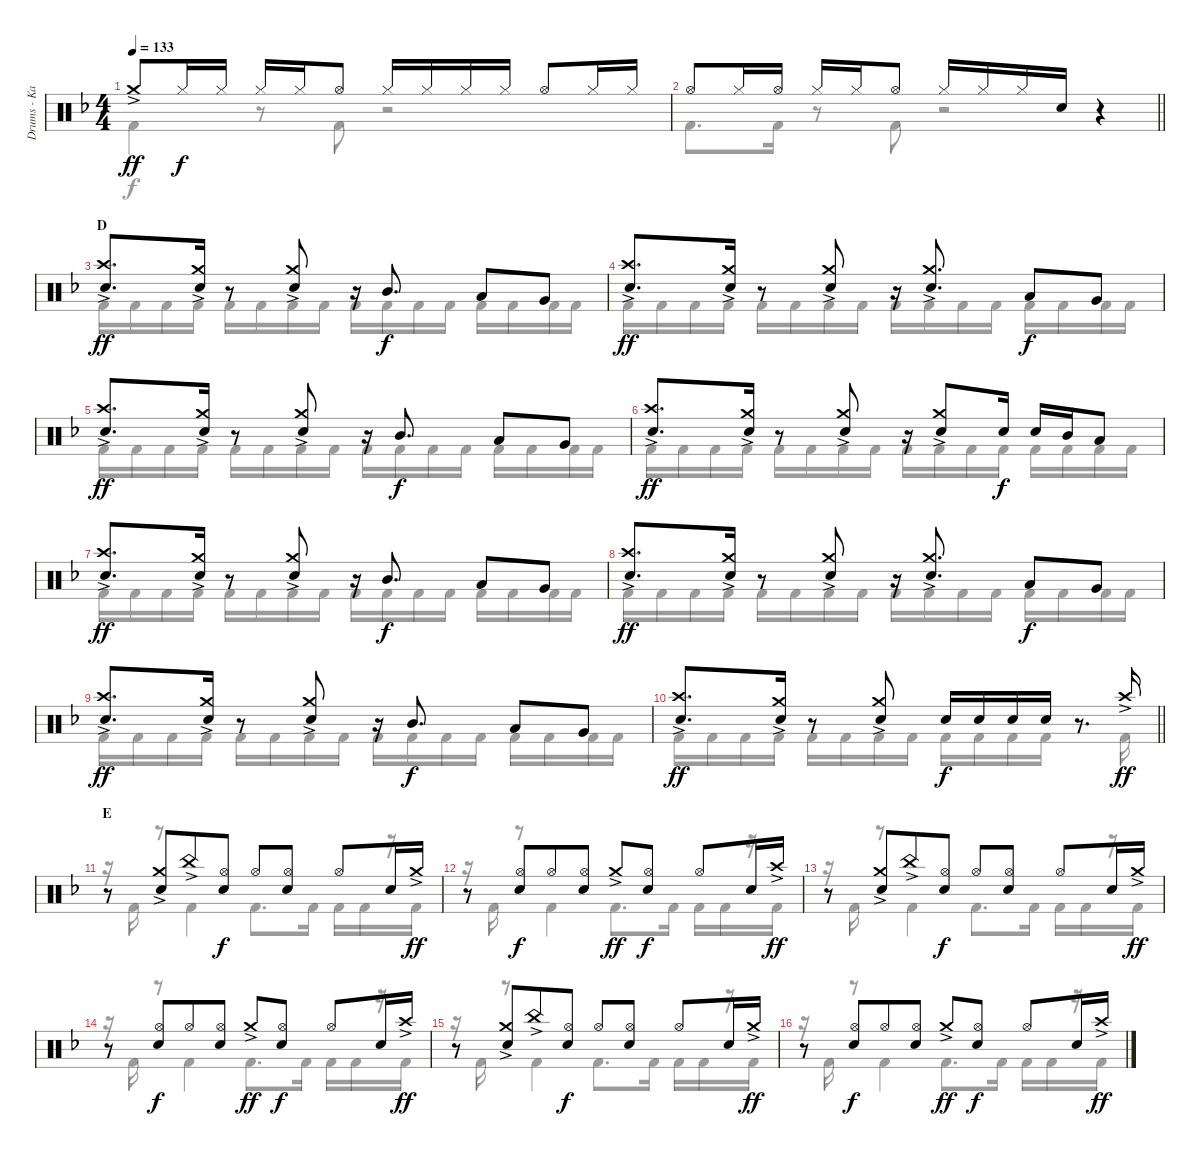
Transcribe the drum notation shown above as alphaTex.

\track ("Drums - Kai" "Drums - Ka") {instrument percussion}
\staff {score}
\articulation defaults
\voice
\ts (4 4)
\tempo 133
\clef neutral
\ks f "Crash medium (hit)"{ac}.8{dy ff} "Hi-Hat (closed)".16{dy f} "Hi-Hat (closed)".16 "Hi-Hat (closed)".16 "Hi-Hat (closed)".16 "Hi-Hat (open)".8 "Hi-Hat (closed)".16 "Hi-Hat (closed)".16 "Hi-Hat (closed)".16 "Hi-Hat (closed)".16 "Hi-Hat (open)".8 "Hi-Hat (closed)".16 "Hi-Hat (closed)".16
|
\barLineRight lightlight "Hi-Hat (open)".8 "Hi-Hat (closed)".16 "Hi-Hat (open)".16 "Hi-Hat (closed)".16 "Hi-Hat (closed)".16 "Hi-Hat (open)".8 "Hi-Hat (closed)".16 "Hi-Hat (closed)".16 "Hi-Hat (closed)".16 "Snare (hit) 2".16
r.4 |
\section ("" "D")
("Crash high (hit)"{ac} "Snare (hit) 2").8{d dy ff} ("Crash medium (hit)"{ac} "Snare (hit) 2").16 r.8 ("Crash medium (hit)"{ac} "Snare (hit) 2").8 r.16 "Mid Tom (hit)".8{d dy f} "Low Tom (hit)".8 "Very Low Tom (hit)".8 |
("Crash high (hit)"{ac} "Snare (hit) 2").8{d dy ff} ("Crash medium (hit)"{ac} "Snare (hit) 2").16 r.8 ("Crash medium (hit)"{ac} "Snare (hit) 2").8 r.16 ("Crash medium (hit)"{ac} "Snare (hit) 2").8{d} "Low Tom (hit)".8{dy f} "Very Low Tom (hit)".8 |
("Crash high (hit)"{ac} "Snare (hit) 2").8{d dy ff} ("Crash medium (hit)"{ac} "Snare (hit) 2").16 r.8 ("Crash medium (hit)"{ac} "Snare (hit) 2").8 r.16 "Mid Tom (hit)".8{d dy f} "Low Tom (hit)".8 "Very Low Tom (hit)".8 |
("Crash high (hit)"{ac} "Snare (hit) 2").8{d dy ff} ("Crash medium (hit)"{ac} "Snare (hit) 2").16 r.8 ("Crash medium (hit)"{ac} "Snare (hit) 2").8 r.16 ("Crash medium (hit)"{ac} "Snare (hit) 2").8 "Snare (hit) 2".16{dy f} "Snare (hit) 2".16 "Mid Tom (hit)".16 "Low Tom (hit)".8 |
("Crash high (hit)"{ac} "Snare (hit) 2").8{d dy ff} ("Crash medium (hit)"{ac} "Snare (hit) 2").16 r.8 ("Crash medium (hit)"{ac} "Snare (hit) 2").8 r.16 "Mid Tom (hit)".8{d dy f} "Low Tom (hit)".8 "Very Low Tom (hit)".8 |
("Crash high (hit)"{ac} "Snare (hit) 2").8{d dy ff} ("Crash medium (hit)"{ac} "Snare (hit) 2").16 r.8 ("Crash medium (hit)"{ac} "Snare (hit) 2").8 r.16 ("Crash medium (hit)"{ac} "Snare (hit) 2").8{d} "Low Tom (hit)".8{dy f} "Very Low Tom (hit)".8 |
("Crash high (hit)"{ac} "Snare (hit) 2").8{d dy ff} ("Crash medium (hit)"{ac} "Snare (hit) 2").16 r.8 ("Crash medium (hit)"{ac} "Snare (hit) 2").8 r.16 "Mid Tom (hit)".8{d dy f} "Low Tom (hit)".8 "Very Low Tom (hit)".8 |
\barLineRight lightlight
("Crash high (hit)"{ac} "Snare (hit) 2").8{d dy ff} ("Crash medium (hit)"{ac} "Snare (hit) 2").16 r.8 ("Crash medium (hit)"{ac} "Snare (hit) 2").8 "Snare (hit) 2".16{dy f} "Snare (hit) 2".16 "Snare (hit) 2".16 "Snare (hit) 2".16 r.8{d} "Crash high (hit)"{ac}.16{dy ff} |
\section ("" "E")
r.8 ("Crash medium (hit)"{ac} "Snare (hit) 2").8{beam merge} "China (hit)"{ac}.8 ("Hi-Hat (open)" "Snare (hit) 2").8{dy f} "Hi-Hat (open)".8 ("Hi-Hat (open)" "Snare (hit) 2").8 "Hi-Hat (open)".8 "Snare (hit) 2".16 "Crash medium (hit)"{ac}.16{dy ff} |
r.8 ("Hi-Hat (open)" "Snare (hit) 2").8{dy f beam merge} "Hi-Hat (open)".8 ("Hi-Hat (open)" "Snare (hit) 2").8 "Crash medium (hit)"{ac}.8{dy ff} ("Hi-Hat (open)" "Snare (hit) 2").8{dy f} "Hi-Hat (open)".8 "Snare (hit) 2".16 "Crash high (hit)"{ac}.16{dy ff} |
r.8 ("Crash medium (hit)"{ac} "Snare (hit) 2").8{beam merge} "China (hit)"{ac}.8 ("Hi-Hat (open)" "Snare (hit) 2").8{dy f} "Hi-Hat (open)".8 ("Hi-Hat (open)" "Snare (hit) 2").8 "Hi-Hat (open)".8 "Snare (hit) 2".16 "Crash medium (hit)"{ac}.16{dy ff} |
r.8 ("Hi-Hat (open)" "Snare (hit) 2").8{dy f beam merge} "Hi-Hat (open)".8 ("Hi-Hat (open)" "Snare (hit) 2").8 "Crash medium (hit)"{ac}.8{dy ff} ("Hi-Hat (open)" "Snare (hit) 2").8{dy f} "Hi-Hat (open)".8 "Snare (hit) 2".16 "Crash high (hit)"{ac}.16{dy ff} |
r.8 ("Crash medium (hit)"{ac} "Snare (hit) 2").8{beam merge} "China (hit)"{ac}.8 ("Hi-Hat (open)" "Snare (hit) 2").8{dy f} "Hi-Hat (open)".8 ("Hi-Hat (open)" "Snare (hit) 2").8 "Hi-Hat (open)".8 "Snare (hit) 2".16 "Crash medium (hit)"{ac}.16{dy ff} |
r.8 ("Hi-Hat (open)" "Snare (hit) 2").8{dy f beam merge} "Hi-Hat (open)".8 ("Hi-Hat (open)" "Snare (hit) 2").8 "Crash medium (hit)"{ac}.8{dy ff} ("Hi-Hat (open)" "Snare (hit) 2").8{dy f} "Hi-Hat (open)".8 "Snare (hit) 2".16 "Crash high (hit)"{ac}.16{dy ff}
\voice
\clef neutral
\ottava regular
\simile none
\ks f "Kick (hit) 2".4{dy f}
r.8 "Kick (hit) 2".8 r.2 |
\barLineRight lightlight "Kick (hit) 2".8{d} "Kick (hit) 2".16
r.8 "Kick (hit) 2".8 r.2 |
"Kick (hit) 2".16 "Kick (hit) 2".16 "Kick (hit) 2".16 "Kick (hit) 2".16 "Kick (hit) 2".16 "Kick (hit) 2".16 "Kick (hit) 2".16 "Kick (hit) 2".16 "Kick (hit) 2".16 "Kick (hit) 2".16 "Kick (hit) 2".16 "Kick (hit) 2".16 "Kick (hit) 2".16 "Kick (hit) 2".16 "Kick (hit) 2".16 "Kick (hit) 2".16 |
"Kick (hit) 2".16 "Kick (hit) 2".16 "Kick (hit) 2".16 "Kick (hit) 2".16 "Kick (hit) 2".16 "Kick (hit) 2".16 "Kick (hit) 2".16 "Kick (hit) 2".16 "Kick (hit) 2".16 "Kick (hit) 2".16 "Kick (hit) 2".16 "Kick (hit) 2".16 "Kick (hit) 2".16 "Kick (hit) 2".16 "Kick (hit) 2".16 "Kick (hit) 2".16 |
"Kick (hit) 2".16 "Kick (hit) 2".16 "Kick (hit) 2".16 "Kick (hit) 2".16 "Kick (hit) 2".16 "Kick (hit) 2".16 "Kick (hit) 2".16 "Kick (hit) 2".16 "Kick (hit) 2".16 "Kick (hit) 2".16 "Kick (hit) 2".16 "Kick (hit) 2".16 "Kick (hit) 2".16 "Kick (hit) 2".16 "Kick (hit) 2".16 "Kick (hit) 2".16 |
"Kick (hit) 2".16 "Kick (hit) 2".16 "Kick (hit) 2".16 "Kick (hit) 2".16 "Kick (hit) 2".16 "Kick (hit) 2".16 "Kick (hit) 2".16 "Kick (hit) 2".16 "Kick (hit) 2".16 "Kick (hit) 2".16 "Kick (hit) 2".16 "Kick (hit) 2".16 "Kick (hit) 2".16 "Kick (hit) 2".16 "Kick (hit) 2".16 "Kick (hit) 2".16 |
"Kick (hit) 2".16 "Kick (hit) 2".16 "Kick (hit) 2".16 "Kick (hit) 2".16 "Kick (hit) 2".16 "Kick (hit) 2".16 "Kick (hit) 2".16 "Kick (hit) 2".16 "Kick (hit) 2".16 "Kick (hit) 2".16 "Kick (hit) 2".16 "Kick (hit) 2".16 "Kick (hit) 2".16 "Kick (hit) 2".16 "Kick (hit) 2".16 "Kick (hit) 2".16 |
"Kick (hit) 2".16 "Kick (hit) 2".16 "Kick (hit) 2".16 "Kick (hit) 2".16 "Kick (hit) 2".16 "Kick (hit) 2".16 "Kick (hit) 2".16 "Kick (hit) 2".16 "Kick (hit) 2".16 "Kick (hit) 2".16 "Kick (hit) 2".16 "Kick (hit) 2".16 "Kick (hit) 2".16 "Kick (hit) 2".16 "Kick (hit) 2".16 "Kick (hit) 2".16 |
"Kick (hit) 2".16 "Kick (hit) 2".16 "Kick (hit) 2".16 "Kick (hit) 2".16 "Kick (hit) 2".16 "Kick (hit) 2".16 "Kick (hit) 2".16 "Kick (hit) 2".16 "Kick (hit) 2".16 "Kick (hit) 2".16 "Kick (hit) 2".16 "Kick (hit) 2".16 "Kick (hit) 2".16 "Kick (hit) 2".16 "Kick (hit) 2".16 "Kick (hit) 2".16 |
\barLineRight lightlight "Kick (hit) 2".16 "Kick (hit) 2".16 "Kick (hit) 2".16 "Kick (hit) 2".16 "Kick (hit) 2".16 "Kick (hit) 2".16 "Kick (hit) 2".16 "Kick (hit) 2".16 "Kick (hit) 2".16 "Kick (hit) 2".16 "Kick (hit) 2".16 "Kick (hit) 2".16
r.8{d} "Kick (hit) 2".16 |
r.16 "Kick (hit) 2".16 r.8 "Kick (hit) 2".4 "Kick (hit) 2".8{d} "Kick (hit) 2".16 "Kick (hit) 2".16 "Kick (hit) 2".16 r.16 "Kick (hit) 2".16 |
r.16 "Kick (hit) 2".16 r.8 "Kick (hit) 2".4 "Kick (hit) 2".8{d} "Kick (hit) 2".16 "Kick (hit) 2".16 "Kick (hit) 2".16 r.16 "Kick (hit) 2".16 |
r.16 "Kick (hit) 2".16 r.8 "Kick (hit) 2".4 "Kick (hit) 2".8{d} "Kick (hit) 2".16 "Kick (hit) 2".16 "Kick (hit) 2".16 r.16 "Kick (hit) 2".16 |
r.16 "Kick (hit) 2".16 r.8 "Kick (hit) 2".4 "Kick (hit) 2".8{d} "Kick (hit) 2".16 "Kick (hit) 2".16 "Kick (hit) 2".16 r.16 "Kick (hit) 2".16 |
r.16 "Kick (hit) 2".16 r.8 "Kick (hit) 2".4 "Kick (hit) 2".8{d} "Kick (hit) 2".16 "Kick (hit) 2".16 "Kick (hit) 2".16 r.16 "Kick (hit) 2".16 |
r.16 "Kick (hit) 2".16 r.8 "Kick (hit) 2".4 "Kick (hit) 2".8{d} "Kick (hit) 2".16 "Kick (hit) 2".16 "Kick (hit) 2".16 r.16 "Kick (hit) 2".16
